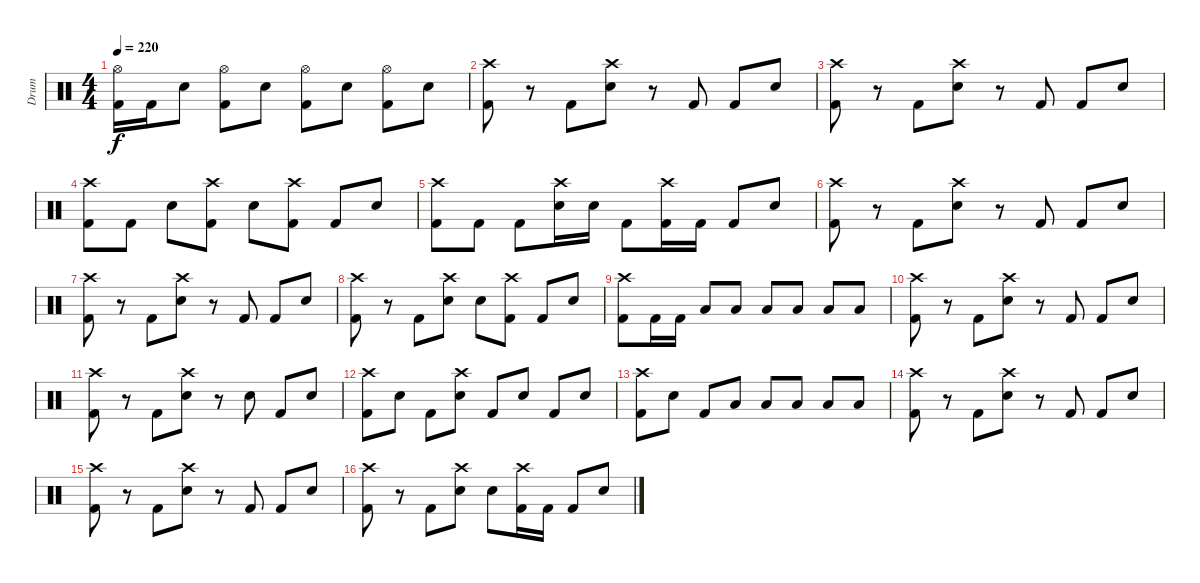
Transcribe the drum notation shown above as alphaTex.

\track ("Drum" "Drum") {instrument percussion}
\staff {score}
\articulation defaults
\ts (4 4)
\tempo 220
\clef neutral
\ks c
("Hi-Hat (open)" "Kick (hit) 2").16{dy f} "Kick (hit) 2".16 "Snare (hit) 2".8 ("Hi-Hat (open)" "Kick (hit) 2").8 "Snare (hit) 2".8 ("Hi-Hat (open)" "Kick (hit) 2").8 "Snare (hit) 2".8 ("Hi-Hat (open)" "Kick (hit) 2").8 "Snare (hit) 2".8 |
("Crash high (hit)" "Kick (hit) 2").8 r.8 "Kick (hit) 2".8 ("Crash high (hit)" "Snare (hit) 2").8 r.8 "Kick (hit) 2".8 "Kick (hit) 2".8 "Snare (hit) 2".8 |
("Crash high (hit)" "Kick (hit) 2").8 r.8 "Kick (hit) 2".8 ("Crash high (hit)" "Snare (hit) 2").8 r.8 "Kick (hit) 2".8 "Kick (hit) 2".8 "Snare (hit) 2".8 |
("Crash high (hit)" "Kick (hit) 2").8 "Kick (hit) 2".8 "Snare (hit) 2".8 ("Crash high (hit)" "Kick (hit) 2").8 "Snare (hit) 2".8 ("Crash high (hit)" "Kick (hit) 2").8 "Kick (hit) 2".8 "Snare (hit) 2".8 |
("Crash high (hit)" "Kick (hit) 2").8 "Kick (hit) 2".8 "Kick (hit) 2".8 ("Crash high (hit)" "Snare (hit) 2").16 "Snare (hit) 2".16 "Kick (hit) 2".8 ("Crash high (hit)" "Kick (hit) 2").16 "Kick (hit) 2".16 "Kick (hit) 2".8 "Snare (hit) 2".8 |
("Crash high (hit)" "Kick (hit) 2").8 r.8 "Kick (hit) 2".8 ("Crash high (hit)" "Snare (hit) 2").8 r.8 "Kick (hit) 2".8 "Kick (hit) 2".8 "Snare (hit) 2".8 |
("Crash high (hit)" "Kick (hit) 2").8 r.8 "Kick (hit) 2".8 ("Crash high (hit)" "Snare (hit) 2").8 r.8 "Kick (hit) 2".8 "Kick (hit) 2".8 "Snare (hit) 2".8 |
("Crash high (hit)" "Kick (hit) 2").8 r.8 "Kick (hit) 2".8 ("Crash high (hit)" "Snare (hit) 2").8 "Snare (hit) 2".8 ("Crash high (hit)" "Kick (hit) 2").8 "Kick (hit) 2".8 "Snare (hit) 2".8 |
("Crash high (hit)" "Kick (hit) 2").8 "Kick (hit) 2".16 "Kick (hit) 2".16 "Low Tom (hit)".8 "Low Tom (hit)".8 "Low Tom (hit)".8 "Low Tom (hit)".8 "Low Tom (hit)".8 "Low Tom (hit)".8 |
("Crash high (hit)" "Kick (hit) 2").8 r.8 "Kick (hit) 2".8 ("Crash high (hit)" "Snare (hit) 2").8 r.8 "Kick (hit) 2".8 "Kick (hit) 2".8 "Snare (hit) 2".8 |
("Crash high (hit)" "Kick (hit) 2").8 r.8 "Kick (hit) 2".8 ("Crash high (hit)" "Snare (hit) 2").8 r.8 "Snare (hit) 2".8 "Kick (hit) 2".8 "Snare (hit) 2".8 |
("Crash high (hit)" "Kick (hit) 2").8 "Snare (hit) 2".8 "Kick (hit) 2".8 ("Crash high (hit)" "Snare (hit) 2").8 "Kick (hit) 2".8 "Snare (hit) 2".8 "Kick (hit) 2".8 "Snare (hit) 2".8 |
("Crash high (hit)" "Kick (hit) 2").8 "Snare (hit) 2".8 "Kick (hit) 2".8 "Low Tom (hit)".8 "Low Tom (hit)".8 "Low Tom (hit)".8 "Low Tom (hit)".8 "Low Tom (hit)".8 |
("Crash high (hit)" "Kick (hit) 2").8 r.8 "Kick (hit) 2".8 ("Crash high (hit)" "Snare (hit) 2").8 r.8 "Kick (hit) 2".8 "Kick (hit) 2".8 "Snare (hit) 2".8 |
("Crash high (hit)" "Kick (hit) 2").8 r.8 "Kick (hit) 2".8 ("Crash high (hit)" "Snare (hit) 2").8 r.8 "Kick (hit) 2".8 "Kick (hit) 2".8 "Snare (hit) 2".8 |
("Crash high (hit)" "Kick (hit) 2").8 r.8 "Kick (hit) 2".8 ("Crash high (hit)" "Snare (hit) 2").8 "Snare (hit) 2".8 ("Crash high (hit)" "Kick (hit) 2").16 "Kick (hit) 2".16 "Kick (hit) 2".8 "Snare (hit) 2".8
